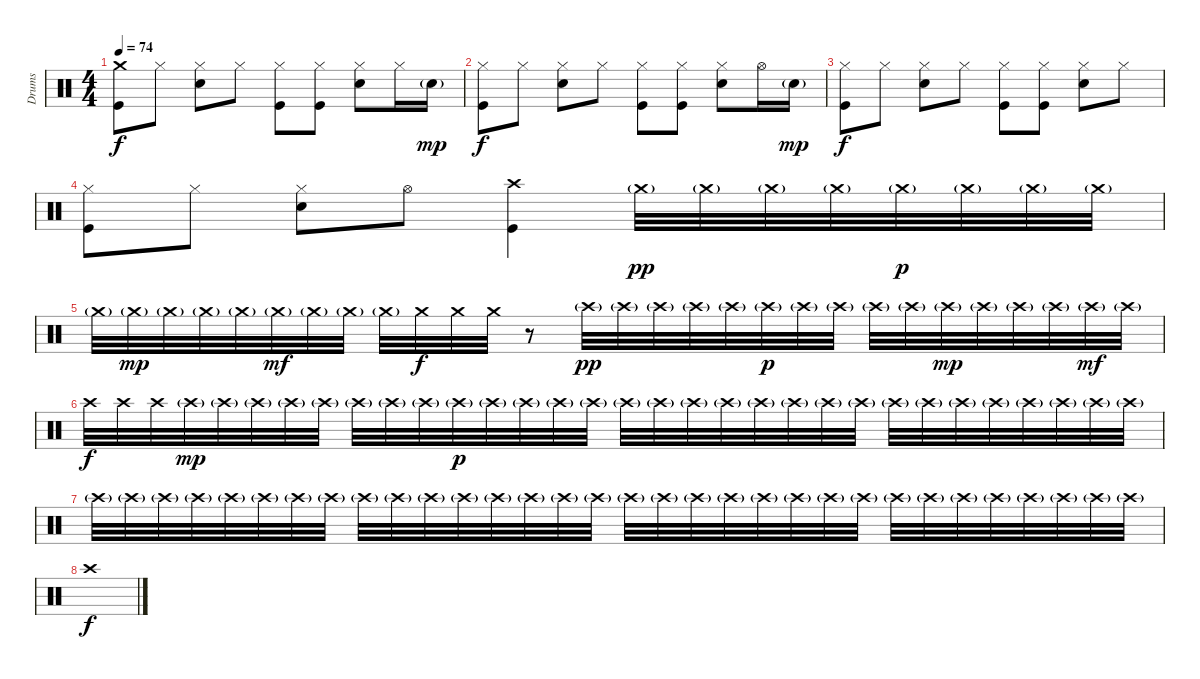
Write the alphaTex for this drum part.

\track ("Drums" "Drums") {instrument percussion}
\staff {score}
\articulation defaults
\ts (4 4)
\tempo 74
\clef neutral
\ks c
("Crash medium (hit)" "Kick (hit)").8{dy f} "Hi-Hat (closed)".8 ("Hi-Hat (closed)" "Snare (hit) 2").8 "Hi-Hat (closed)".8 ("Hi-Hat (closed)" "Kick (hit)").8 ("Hi-Hat (closed)" "Kick (hit)").8 ("Hi-Hat (closed)" "Snare (hit) 2").8 "Hi-Hat (closed)".16 "Snare (hit) 2"{g}.16{dy mp} |
("Hi-Hat (closed)" "Kick (hit)").8{dy f} "Hi-Hat (closed)".8 ("Hi-Hat (closed)" "Snare (hit) 2").8 "Hi-Hat (closed)".8 ("Hi-Hat (closed)" "Kick (hit)").8 ("Hi-Hat (closed)" "Kick (hit)").8 ("Hi-Hat (closed)" "Snare (hit) 2").8 "Hi-Hat (open)".16 "Snare (hit) 2"{g}.16{dy mp} |
("Hi-Hat (closed)" "Kick (hit)").8{dy f} "Hi-Hat (closed)".8 ("Hi-Hat (closed)" "Snare (hit) 2").8 "Hi-Hat (closed)".8 ("Hi-Hat (closed)" "Kick (hit)").8 ("Hi-Hat (closed)" "Kick (hit)").8 ("Hi-Hat (closed)" "Snare (hit) 2").8 "Hi-Hat (closed)".8 |
("Hi-Hat (closed)" "Kick (hit)").8 "Hi-Hat (closed)".8 ("Hi-Hat (closed)" "Snare (hit) 2").8 "Hi-Hat (open)".8 ("Crash high (hit)" "Kick (hit)").4 "Crash medium (hit)"{g}.32{dy pp} "Crash medium (hit)"{g}.32 "Crash medium (hit)"{g}.32 "Crash medium (hit)"{g}.32 "Crash medium (hit)"{g}.32{dy p} "Crash medium (hit)"{g}.32 "Crash medium (hit)"{g}.32 "Crash medium (hit)"{g}.32 |
"Crash medium (hit)"{g}.32 "Crash medium (hit)"{g}.32{dy mp} "Crash medium (hit)"{g}.32 "Crash medium (hit)"{g}.32 "Crash medium (hit)"{g}.32 "Crash medium (hit)"{g}.32{dy mf} "Crash medium (hit)"{g}.32 "Crash medium (hit)"{g}.32 "Crash medium (hit)"{g}.32 "Crash medium (hit)".32{dy f} "Crash medium (hit)".32 "Crash medium (hit)".32 r.8 "Crash high (hit)"{g}.32{dy pp} "Crash high (hit)"{g}.32 "Crash high (hit)"{g}.32 "Crash high (hit)"{g}.32 "Crash high (hit)"{g}.32 "Crash high (hit)"{g}.32{dy p} "Crash high (hit)"{g}.32 "Crash high (hit)"{g}.32 "Crash high (hit)"{g}.32 "Crash high (hit)"{g}.32 "Crash high (hit)"{g}.32{dy mp} "Crash high (hit)"{g}.32 "Crash high (hit)"{g}.32 "Crash high (hit)"{g}.32 "Crash high (hit)"{g}.32{dy mf} "Crash high (hit)"{g}.32 |
"Crash high (hit)".32{dy f volume 3} "Crash high (hit)".32 "Crash high (hit)".32 "Crash high (hit)"{g}.32{dy mp} "Crash high (hit)"{g}.32 "Crash high (hit)"{g}.32 "Crash high (hit)"{g}.32 "Crash high (hit)"{g}.32 "Crash high (hit)"{g}.32 "Crash high (hit)"{g}.32 "Crash high (hit)"{g}.32 "Crash high (hit)"{g}.32{dy p} "Crash high (hit)"{g}.32 "Crash high (hit)"{g}.32 "Crash high (hit)"{g}.32 "Crash high (hit)"{g}.32 "Crash high (hit)"{g}.32 "Crash high (hit)"{g}.32 "Crash high (hit)"{g}.32 "Crash high (hit)"{g}.32 "Crash high (hit)"{g}.32 "Crash high (hit)"{g}.32 "Crash high (hit)"{g}.32 "Crash high (hit)"{g}.32 "Crash high (hit)"{g}.32 "Crash high (hit)"{g}.32 "Crash high (hit)"{g}.32 "Crash high (hit)"{g}.32 "Crash high (hit)"{g}.32 "Crash high (hit)"{g}.32 "Crash high (hit)"{g}.32 "Crash high (hit)"{g}.32 |
"Crash high (hit)"{g}.32 "Crash high (hit)"{g}.32 "Crash high (hit)"{g}.32 "Crash high (hit)"{g}.32 "Crash high (hit)"{g}.32 "Crash high (hit)"{g}.32 "Crash high (hit)"{g}.32 "Crash high (hit)"{g}.32 "Crash high (hit)"{g}.32 "Crash high (hit)"{g}.32 "Crash high (hit)"{g}.32 "Crash high (hit)"{g}.32 "Crash high (hit)"{g}.32 "Crash high (hit)"{g}.32 "Crash high (hit)"{g}.32 "Crash high (hit)"{g}.32 "Crash high (hit)"{g}.32 "Crash high (hit)"{g}.32 "Crash high (hit)"{g}.32 "Crash high (hit)"{g}.32 "Crash high (hit)"{g}.32 "Crash high (hit)"{g}.32 "Crash high (hit)"{g}.32 "Crash high (hit)"{g}.32 "Crash high (hit)"{g}.32 "Crash high (hit)"{g}.32 "Crash high (hit)"{g}.32 "Crash high (hit)"{g}.32 "Crash high (hit)"{g}.32 "Crash high (hit)"{g}.32 "Crash high (hit)"{g}.32 "Crash high (hit)"{g}.32 |
"Crash high (hit)".1{dy f}
